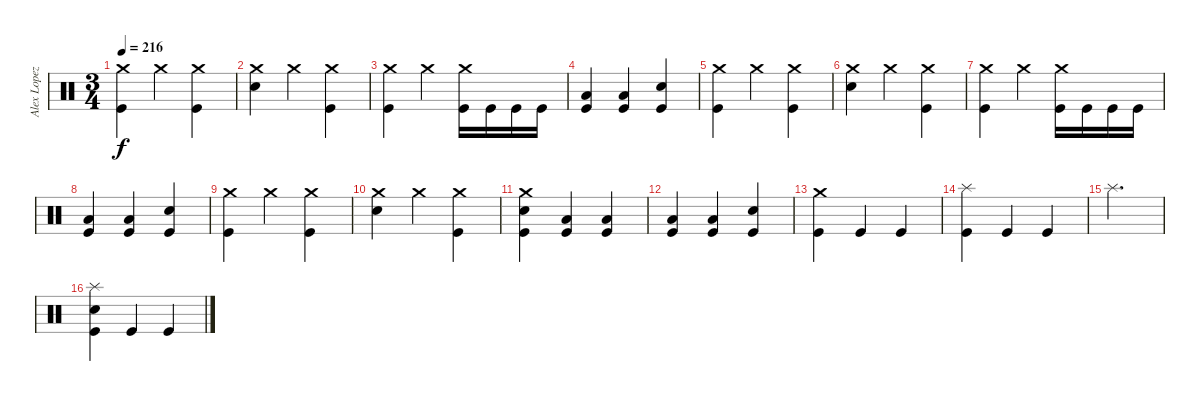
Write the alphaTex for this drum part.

\track ("Alex Lopez" "Alex Lopez") {instrument percussion}
\staff {score}
\articulation defaults
\ts (3 4)
\tempo 216
\clef neutral
\ks c
("Crash medium (hit)" "Kick (hit)").4{dy f} "Crash medium (hit)".4 ("Crash medium (hit)" "Kick (hit)").4 |
("Crash medium (hit)" "Electric Snare (hit)").4 "Crash medium (hit)".4 ("Crash medium (hit)" "Kick (hit)").4 |
("Crash medium (hit)" "Kick (hit)").4 "Crash medium (hit)".4 ("Crash medium (hit)" "Kick (hit)").16 "Kick (hit)".16 "Kick (hit)".16 "Kick (hit)".16 |
("Low Tom (hit)" "Kick (hit)").4 ("Low Floor Tom (hit)" "Kick (hit)").4 ("Electric Snare (hit)" "Kick (hit)").4 |
("Crash medium (hit)" "Kick (hit)").4 "Crash medium (hit)".4 ("Crash medium (hit)" "Kick (hit)").4 |
("Crash medium (hit)" "Electric Snare (hit)").4 "Crash medium (hit)".4 ("Crash medium (hit)" "Kick (hit)").4 |
("Crash medium (hit)" "Kick (hit)").4 "Crash medium (hit)".4 ("Crash medium (hit)" "Kick (hit)").16 "Kick (hit)".16 "Kick (hit)".16 "Kick (hit)".16 |
("Low Tom (hit)" "Kick (hit)").4 ("Low Floor Tom (hit)" "Kick (hit)").4 ("Electric Snare (hit)" "Kick (hit)").4 |
("Crash medium (hit)" "Kick (hit)").4 "Crash medium (hit)".4 ("Crash medium (hit)" "Kick (hit)").4 |
("Crash medium (hit)" "Electric Snare (hit)").4 "Crash medium (hit)".4 ("Crash medium (hit)" "Kick (hit)").4 |
("Crash medium (hit)" "Electric Snare (hit)" "Kick (hit)").4 ("Low Tom (hit)" "Kick (hit)").4 ("Low Floor Tom (hit)" "Kick (hit)").4 |
("Low Tom (hit)" "Kick (hit)").4 ("Low Floor Tom (hit)" "Kick (hit)").4 ("Electric Snare (hit)" "Kick (hit)").4 |
("Crash medium (hit)" "Kick (hit)").4 "Kick (hit)".4 "Kick (hit)".4 |
("Splash (hit)" "Kick (hit)").4 "Kick (hit)".4 "Kick (hit)".4 |
"Splash (hit)".2{d} |
("Splash (hit)" "Electric Snare (hit)" "Kick (hit)").4 "Kick (hit)".4 "Kick (hit)".4
